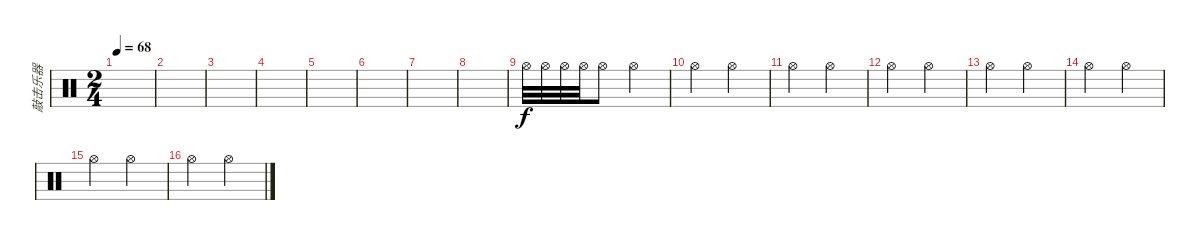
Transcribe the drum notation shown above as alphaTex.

\track ("敲击乐器" "敲击乐器") {instrument percussion}
\staff {score}
\articulation defaults
\ts (2 4)
\tempo 68
\clef neutral
\ks c
|
|
|
|
|
|
|
|
"Hi-Hat (open)".32 "Hi-Hat (open)".32 "Hi-Hat (open)".32 "Hi-Hat (open)".32 "Hi-Hat (open)".8 "Hi-Hat (open)".4 |
"Hi-Hat (open)".4 "Hi-Hat (open)".4 |
"Hi-Hat (open)".4 "Hi-Hat (open)".4 |
"Hi-Hat (open)".4 "Hi-Hat (open)".4 |
"Hi-Hat (open)".4 "Hi-Hat (open)".4 |
"Hi-Hat (open)".4 "Hi-Hat (open)".4 |
"Hi-Hat (open)".4 "Hi-Hat (open)".4 |
"Hi-Hat (open)".4 "Hi-Hat (open)".4
